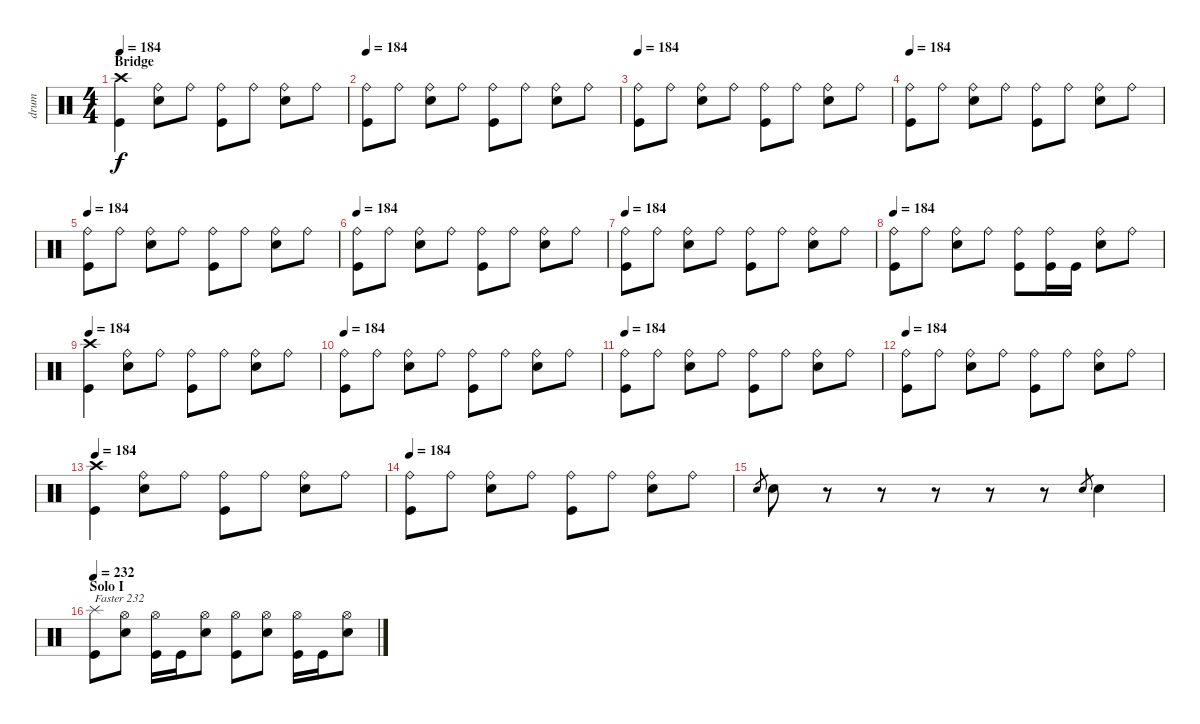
\track ("drum" "drum") {instrument percussion}
\staff {score}
\articulation defaults
\ts (4 4)
\section ("" "Bridge")
\tempo 184
\clef neutral
\ks c
("Kick (hit)" "Crash high (hit)").4{dy f} ("Electric Snare (hit)" "Ride (bell)").8 "Ride (bell)".8 ("Kick (hit)" "Ride (bell)").8 "Ride (bell)".8 ("Electric Snare (hit)" "Ride (bell)").8 "Ride (bell)".8 |
\tempo 184
("Kick (hit)" "Ride (bell)").8 "Ride (bell)".8 ("Electric Snare (hit)" "Ride (bell)").8 "Ride (bell)".8 ("Kick (hit)" "Ride (bell)").8 "Ride (bell)".8 ("Electric Snare (hit)" "Ride (bell)").8 "Ride (bell)".8 |
\tempo 184
("Kick (hit)" "Ride (bell)").8 "Ride (bell)".8 ("Electric Snare (hit)" "Ride (bell)").8 "Ride (bell)".8 ("Kick (hit)" "Ride (bell)").8 "Ride (bell)".8 ("Electric Snare (hit)" "Ride (bell)").8 "Ride (bell)".8 |
\tempo 184
("Kick (hit)" "Ride (bell)").8 "Ride (bell)".8 ("Electric Snare (hit)" "Ride (bell)").8 "Ride (bell)".8 ("Kick (hit)" "Ride (bell)").8 "Ride (bell)".8 ("Electric Snare (hit)" "Ride (bell)").8 "Ride (bell)".8 |
\tempo 184
("Kick (hit)" "Ride (bell)").8 "Ride (bell)".8 ("Electric Snare (hit)" "Ride (bell)").8 "Ride (bell)".8 ("Kick (hit)" "Ride (bell)").8 "Ride (bell)".8 ("Electric Snare (hit)" "Ride (bell)").8 "Ride (bell)".8 |
\tempo 184
("Kick (hit)" "Ride (bell)").8 "Ride (bell)".8 ("Electric Snare (hit)" "Ride (bell)").8 "Ride (bell)".8 ("Kick (hit)" "Ride (bell)").8 "Ride (bell)".8 ("Electric Snare (hit)" "Ride (bell)").8 "Ride (bell)".8 |
\tempo 184
("Kick (hit)" "Ride (bell)").8 "Ride (bell)".8 ("Electric Snare (hit)" "Ride (bell)").8 "Ride (bell)".8 ("Kick (hit)" "Ride (bell)").8 "Ride (bell)".8 ("Electric Snare (hit)" "Ride (bell)").8 "Ride (bell)".8 |
\tempo 184
("Kick (hit)" "Ride (bell)").8 "Ride (bell)".8 ("Electric Snare (hit)" "Ride (bell)").8 "Ride (bell)".8 ("Kick (hit)" "Ride (bell)").8 ("Kick (hit)" "Ride (bell)").16 "Kick (hit)".16 ("Electric Snare (hit)" "Ride (bell)").8 "Ride (bell)".8 |
\tempo 184
("Kick (hit)" "Crash high (hit)").4 ("Electric Snare (hit)" "Ride (bell)").8 "Ride (bell)".8 ("Kick (hit)" "Ride (bell)").8 "Ride (bell)".8 ("Electric Snare (hit)" "Ride (bell)").8 "Ride (bell)".8 |
\tempo 184
("Kick (hit)" "Ride (bell)").8 "Ride (bell)".8 ("Electric Snare (hit)" "Ride (bell)").8 "Ride (bell)".8 ("Kick (hit)" "Ride (bell)").8 "Ride (bell)".8 ("Electric Snare (hit)" "Ride (bell)").8 "Ride (bell)".8 |
\tempo 184
("Kick (hit)" "Ride (bell)").8 "Ride (bell)".8 ("Electric Snare (hit)" "Ride (bell)").8 "Ride (bell)".8 ("Kick (hit)" "Ride (bell)").8 "Ride (bell)".8 ("Electric Snare (hit)" "Ride (bell)").8 "Ride (bell)".8 |
\tempo 184
("Kick (hit)" "Ride (bell)").8 "Ride (bell)".8 ("Electric Snare (hit)" "Ride (bell)").8 "Ride (bell)".8 ("Kick (hit)" "Ride (bell)").8 "Ride (bell)".8 ("Electric Snare (hit)" "Ride (bell)").8 "Ride (bell)".8 |
\tempo 184
("Kick (hit)" "Crash high (hit)").4 ("Electric Snare (hit)" "Ride (bell)").8 "Ride (bell)".8 ("Kick (hit)" "Ride (bell)").8 "Ride (bell)".8 ("Electric Snare (hit)" "Ride (bell)").8 "Ride (bell)".8 |
\tempo 184
("Kick (hit)" "Ride (bell)").8 "Ride (bell)".8 ("Electric Snare (hit)" "Ride (bell)").8 "Ride (bell)".8 ("Kick (hit)" "Ride (bell)").8 "Ride (bell)".8 ("Electric Snare (hit)" "Ride (bell)").8 "Ride (bell)".8 |
"Electric Snare (hit)".8{gr} "Electric Snare (hit)".8 r.8 r.8 r.8 r.8 r.8 "Electric Snare (hit)".8{gr} "Electric Snare (hit)".4 |
\section ("" "Solo I")
\tempo 232
("Kick (hit)" "Splash (hit)").8{txt "Faster 232"} ("Electric Snare (hit)" "Hi-Hat (open)").8 ("Kick (hit)" "Hi-Hat (open)").16 "Kick (hit)".16 ("Electric Snare (hit)" "Hi-Hat (open)").8 ("Kick (hit)" "Hi-Hat (open)").8 ("Electric Snare (hit)" "Hi-Hat (open)").8 ("Kick (hit)" "Hi-Hat (open)").16 "Kick (hit)".16 ("Electric Snare (hit)" "Hi-Hat (open)").8
